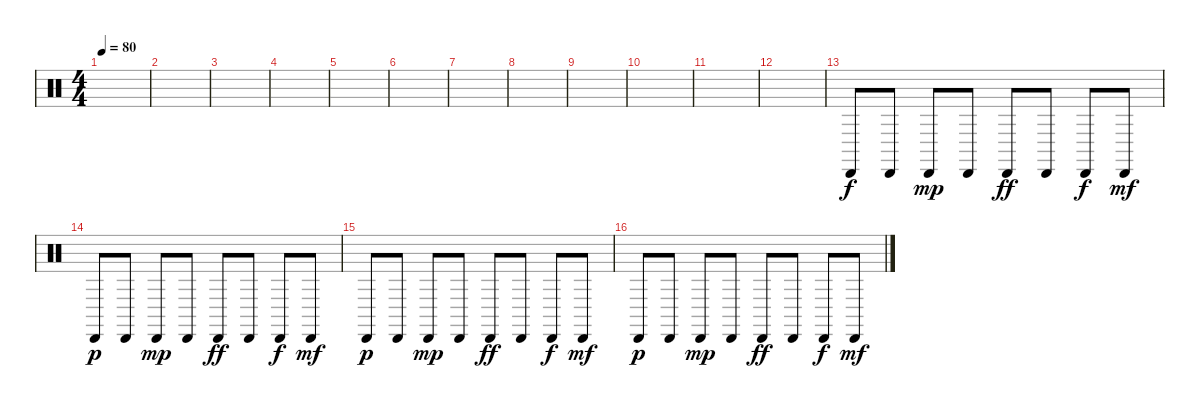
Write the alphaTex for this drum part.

\track "" {instrument percussion}
\staff {score}
\articulation defaults
\ts (4 4)
\tempo 80
\clef neutral
\ks c
|
|
|
|
|
|
|
|
|
|
|
|
"Cabasa (hit)".8 "Cabasa (hit)".8 "Cabasa (hit)".8{dy mp} "Cabasa (hit)".8 "Cabasa (hit)".8{dy ff} "Cabasa (hit)".8 "Cabasa (hit)".8{dy f} "Cabasa (hit)".8{dy mf} |
"Cabasa (hit)".8{dy p} "Cabasa (hit)".8 "Cabasa (hit)".8{dy mp} "Cabasa (hit)".8 "Cabasa (hit)".8{dy ff} "Cabasa (hit)".8 "Cabasa (hit)".8{dy f} "Cabasa (hit)".8{dy mf} |
"Cabasa (hit)".8{dy p} "Cabasa (hit)".8 "Cabasa (hit)".8{dy mp} "Cabasa (hit)".8 "Cabasa (hit)".8{dy ff} "Cabasa (hit)".8 "Cabasa (hit)".8{dy f} "Cabasa (hit)".8{dy mf} |
"Cabasa (hit)".8{dy p} "Cabasa (hit)".8 "Cabasa (hit)".8{dy mp} "Cabasa (hit)".8 "Cabasa (hit)".8{dy ff} "Cabasa (hit)".8 "Cabasa (hit)".8{dy f} "Cabasa (hit)".8{dy mf}
